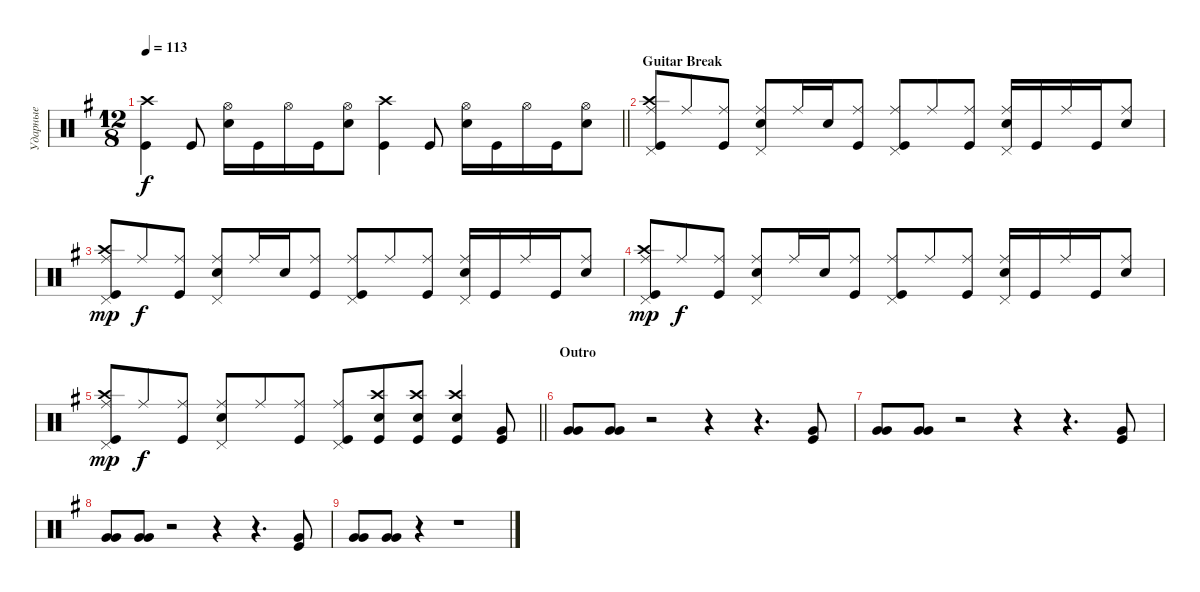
\track ("Ударные" "Ударные") {instrument percussion}
\staff {score}
\articulation defaults
\ts (12 8)
\tempo 113
\clef neutral
\barLineRight lightlight
\ks eminor
("Kick (hit)" "Crash high (hit)").4{dy f} "Kick (hit)".8 ("Snare (hit) 2" "Hi-Hat (open)").16 "Kick (hit)".16 "Hi-Hat (open)".16 "Kick (hit)".16 ("Hi-Hat (open)" "Snare (hit) 2").8 ("Kick (hit)" "Crash high (hit)").4 "Kick (hit)".8 ("Snare (hit) 2" "Hi-Hat (open)").16 "Kick (hit)".16 "Hi-Hat (open)".16 "Kick (hit)".16 ("Hi-Hat (open)" "Snare (hit) 2").8 |
\section ("" "Guitar Break")
("Ride (middle)" "Kick (hit)" "Crash high (hit)" "Pedal Hi-Hat (hit)").8 "Ride (middle)".8 ("Ride (middle)" "Kick (hit)").8 ("Ride (middle)" "Snare (hit) 2" "Pedal Hi-Hat (hit)").8 "Ride (middle)".16 "Snare (hit) 2".16 ("Ride (middle)" "Kick (hit)").8 ("Ride (middle)" "Kick (hit)" "Pedal Hi-Hat (hit)").8 "Ride (middle)".8 ("Ride (middle)" "Kick (hit)").8 ("Ride (middle)" "Snare (hit) 2" "Pedal Hi-Hat (hit)").16 "Kick (hit)".16 "Ride (middle)".16 "Kick (hit)".16 ("Ride (middle)" "Snare (hit) 2").8 |
("Crash high (hit)" "Kick (hit)" "Ride (middle)" "Pedal Hi-Hat (hit)").8{dy mp} "Ride (middle)".8{dy f} ("Ride (middle)" "Kick (hit)").8 ("Ride (middle)" "Snare (hit) 2" "Pedal Hi-Hat (hit)").8 "Ride (middle)".16 "Snare (hit) 2".16 ("Ride (middle)" "Kick (hit)").8 ("Ride (middle)" "Kick (hit)" "Pedal Hi-Hat (hit)").8 "Ride (middle)".8 ("Ride (middle)" "Kick (hit)").8 ("Ride (middle)" "Snare (hit) 2" "Pedal Hi-Hat (hit)").16 "Kick (hit)".16 "Ride (middle)".16 "Kick (hit)".16 ("Ride (middle)" "Snare (hit) 2").8 |
("Crash high (hit)" "Kick (hit)" "Ride (middle)" "Pedal Hi-Hat (hit)").8{dy mp} "Ride (middle)".8{dy f} ("Ride (middle)" "Kick (hit)").8 ("Ride (middle)" "Snare (hit) 2" "Pedal Hi-Hat (hit)").8 "Ride (middle)".16 "Snare (hit) 2".16 ("Ride (middle)" "Kick (hit)").8 ("Ride (middle)" "Kick (hit)" "Pedal Hi-Hat (hit)").8 "Ride (middle)".8 ("Ride (middle)" "Kick (hit)").8 ("Ride (middle)" "Snare (hit) 2" "Pedal Hi-Hat (hit)").16 "Kick (hit)".16 "Ride (middle)".16 "Kick (hit)".16 ("Ride (middle)" "Snare (hit) 2").8 |
\barLineRight lightlight
("Ride (middle)" "Kick (hit)" "Crash high (hit)" "Pedal Hi-Hat (hit)").8{dy mp} "Ride (middle)".8{dy f} ("Ride (middle)" "Kick (hit)").8 ("Ride (middle)" "Snare (hit) 2" "Pedal Hi-Hat (hit)").8 "Ride (middle)".8 ("Ride (middle)" "Kick (hit)").8 ("Ride (middle)" "Kick (hit)" "Pedal Hi-Hat (hit)").8 ("Kick (hit)" "Crash high (hit)" "Snare (hit) 2").8 ("Kick (hit)" "Crash high (hit)" "Snare (hit) 2").8 ("Kick (hit)" "Snare (hit) 2" "Crash high (hit)").4 ("Kick (hit)" "Very Low Tom (hit)").8 |
\section ("" "Outro")
("Very Low Tom (hit)" "Very Low Tom (hit)").8{bd 120} ("Very Low Tom (hit)" "Very Low Tom (hit)").8{bd 120} r.2 r.4 r.4{d} ("Kick (hit)" "Very Low Tom (hit)").8 |
("Very Low Tom (hit)" "Very Low Tom (hit)").8{bd 120} ("Very Low Tom (hit)" "Very Low Tom (hit)").8{bd 120} r.2 r.4 r.4{d} ("Kick (hit)" "Very Low Tom (hit)").8 |
("Very Low Tom (hit)" "Very Low Tom (hit)").8{bd 120} ("Very Low Tom (hit)" "Very Low Tom (hit)").8{bd 120} r.2 r.4 r.4{d} ("Kick (hit)" "Very Low Tom (hit)").8 |
("Very Low Tom (hit)" "Very Low Tom (hit)").8{bd 120} ("Very Low Tom (hit)" "Very Low Tom (hit)").8{bd 120} r.4 r.1
